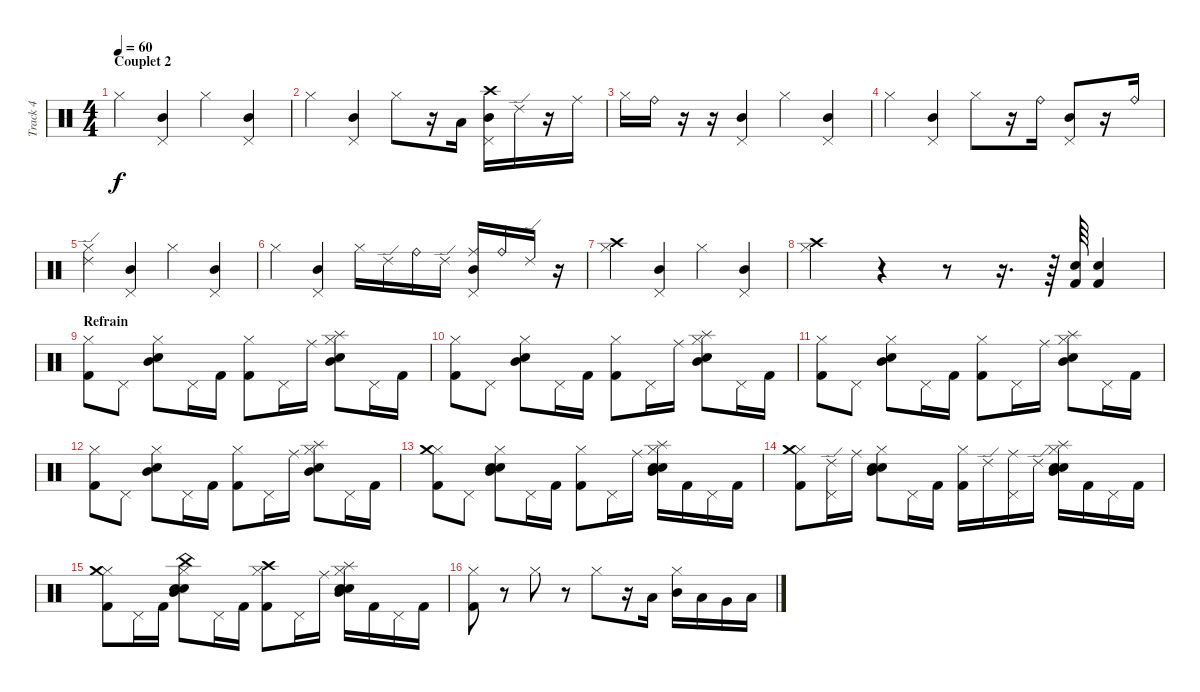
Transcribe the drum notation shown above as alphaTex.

\track ("Track 4" "Track 4") {instrument percussion}
\staff {score}
\articulation defaults
\ts (4 4)
\section ("" "Couplet 2")
\tempo 60
\clef neutral
\ks c "Hi-Hat (closed)".4{dy f}
("Pedal Hi-Hat (hit)" "Mid Tom (hit)").4 "Hi-Hat (closed)".4 ("Pedal Hi-Hat (hit)" "Mid Tom (hit)").4 |
"Hi-Hat (closed)".4 ("Pedal Hi-Hat (hit)" "Mid Tom (hit)").4 "Hi-Hat (closed)".8 r.16 "Low Tom (hit)".16 ("Pedal Hi-Hat (hit)" "Mid Tom (hit)" "Crash high (hit)").16 "Ride (edge) 2".16 r.16 "Ride (middle)".16 |
"Hi-Hat (closed)".16 "Ride (bell)".16 r.16 r.16 ("Pedal Hi-Hat (hit)" "Mid Tom (hit)").4 "Hi-Hat (closed)".4 ("Pedal Hi-Hat (hit)" "Mid Tom (hit)").4 |
"Hi-Hat (closed)".4 ("Pedal Hi-Hat (hit)" "Mid Tom (hit)").4 "Hi-Hat (closed)".8 r.16 "Ride (bell)".16 ("Pedal Hi-Hat (hit)" "Mid Tom (hit)").8 r.16 "Ride (bell)".16 |
("Hi-Hat (closed)" "Ride (edge) 2").4 ("Pedal Hi-Hat (hit)" "Mid Tom (hit)").4 "Hi-Hat (closed)".4 ("Pedal Hi-Hat (hit)" "Mid Tom (hit)").4 |
"Hi-Hat (closed)".4 ("Pedal Hi-Hat (hit)" "Mid Tom (hit)").4 "Hi-Hat (closed)".16 "Ride (edge) 2".16 "Ride (bell)".16 "Ride (edge) 2".16 ("Pedal Hi-Hat (hit)" "Mid Tom (hit)" "Ride (middle)").16 "Ride (bell)".16 "Ride (edge) 2".16 r.16 |
("Hi-Hat (closed)" "Crash high (hit)").4 ("Pedal Hi-Hat (hit)" "Mid Tom (hit)").4 "Hi-Hat (closed)".4 ("Pedal Hi-Hat (hit)" "Mid Tom (hit)").4 |
("Hi-Hat (closed)" "Crash high (hit)").4 r.4 r.8 r.16{d} r.64 ("Snare (hit) 2" "Kick (hit) 2").64 ("Snare (hit) 2" "Kick (hit) 2").4 |
\section ("" "Refrain")
("Hi-Hat (closed)" "Kick (hit) 2").8 "Pedal Hi-Hat (hit)".8 ("Hi-Hat (closed)" "Mid Tom (hit)" "Electric Snare (hit)").8 "Pedal Hi-Hat (hit)".16 "Kick (hit) 2".16 ("Hi-Hat (closed)" "Kick (hit) 2").8 "Pedal Hi-Hat (hit)".16 "Ride (middle)".16 ("Hi-Hat (closed)" "Mid Tom (hit)" "Electric Snare (hit)" "Splash (hit)").8 "Pedal Hi-Hat (hit)".16 "Kick (hit) 2".16 |
("Hi-Hat (closed)" "Kick (hit) 2").8 "Pedal Hi-Hat (hit)".8 ("Hi-Hat (closed)" "Mid Tom (hit)" "Electric Snare (hit)").8 "Pedal Hi-Hat (hit)".16 "Kick (hit) 2".16 ("Hi-Hat (closed)" "Kick (hit) 2").8 "Pedal Hi-Hat (hit)".16 "Ride (middle)".16 ("Hi-Hat (closed)" "Mid Tom (hit)" "Electric Snare (hit)" "Splash (hit)").8 "Pedal Hi-Hat (hit)".16 "Kick (hit) 2".16 |
("Hi-Hat (closed)" "Kick (hit) 2").8 "Pedal Hi-Hat (hit)".8 ("Hi-Hat (closed)" "Mid Tom (hit)" "Electric Snare (hit)").8 "Pedal Hi-Hat (hit)".16 "Kick (hit) 2".16 ("Hi-Hat (closed)" "Kick (hit) 2").8 "Pedal Hi-Hat (hit)".16 "Ride (middle)".16 ("Hi-Hat (closed)" "Mid Tom (hit)" "Electric Snare (hit)" "Splash (hit)").8 "Pedal Hi-Hat (hit)".16 "Kick (hit) 2".16 |
("Hi-Hat (closed)" "Kick (hit) 2").8 "Pedal Hi-Hat (hit)".8 ("Hi-Hat (closed)" "Mid Tom (hit)" "Electric Snare (hit)").8 "Pedal Hi-Hat (hit)".16 "Kick (hit) 2".16 ("Hi-Hat (closed)" "Kick (hit) 2").8 "Pedal Hi-Hat (hit)".16 "Ride (middle)".16 ("Hi-Hat (closed)" "Mid Tom (hit)" "Electric Snare (hit)" "Splash (hit)").8 "Pedal Hi-Hat (hit)".16 "Kick (hit) 2".16 |
("Hi-Hat (closed)" "Kick (hit) 2" "Crash medium (hit)").8 "Pedal Hi-Hat (hit)".8 ("Hi-Hat (closed)" "Mid Tom (hit)" "Electric Snare (hit)" "Snare (hit) 2").8 "Pedal Hi-Hat (hit)".16 "Kick (hit) 2".16 ("Hi-Hat (closed)" "Kick (hit) 2").8 "Pedal Hi-Hat (hit)".16 "Ride (middle)".16 ("Hi-Hat (closed)" "Mid Tom (hit)" "Electric Snare (hit)" "Splash (hit)" "Snare (hit) 2").16 "Kick (hit) 2".16 "Pedal Hi-Hat (hit)".16 "Kick (hit) 2".16 |
("Hi-Hat (closed)" "Kick (hit) 2" "Crash medium (hit)").8 ("Pedal Hi-Hat (hit)" "Ride (edge) 2").16 "Ride (middle)".16 ("Hi-Hat (closed)" "Mid Tom (hit)" "Electric Snare (hit)" "Snare (hit) 2").8 "Pedal Hi-Hat (hit)".16 "Kick (hit) 2".16 ("Hi-Hat (closed)" "Kick (hit) 2").16 "Ride (edge) 2".16 ("Pedal Hi-Hat (hit)" "Ride (middle)").16 "Ride (edge) 2".16 ("Hi-Hat (closed)" "Mid Tom (hit)" "Electric Snare (hit)" "Splash (hit)" "Snare (hit) 2").16 "Kick (hit) 2".16 "Pedal Hi-Hat (hit)".16 "Kick (hit) 2".16 |
("Hi-Hat (closed)" "Kick (hit) 2" "Crash medium (hit)").8 "Pedal Hi-Hat (hit)".16 "Kick (hit) 2".16 ("Hi-Hat (closed)" "Mid Tom (hit)" "Electric Snare (hit)" "Snare (hit) 2" "China (hit)").8 "Pedal Hi-Hat (hit)".16 "Kick (hit) 2".16 ("Hi-Hat (closed)" "Kick (hit) 2" "Crash high (hit)").8 "Pedal Hi-Hat (hit)".16 "Ride (middle)".16 ("Hi-Hat (closed)" "Mid Tom (hit)" "Electric Snare (hit)" "Splash (hit)" "Snare (hit) 2").16 "Kick (hit) 2".16 "Pedal Hi-Hat (hit)".16 "Kick (hit) 2".16 |
("Hi-Hat (closed)" "Kick (hit) 2").8 r.8 "Hi-Hat (closed)".8 r.8 "Hi-Hat (closed)".8 r.16 "Low Tom (hit)".16 ("Hi-Hat (closed)" "Mid Tom (hit)").16 "Low Tom (hit)".16 "Very Low Tom (hit)".16 "Low Tom (hit)".16
